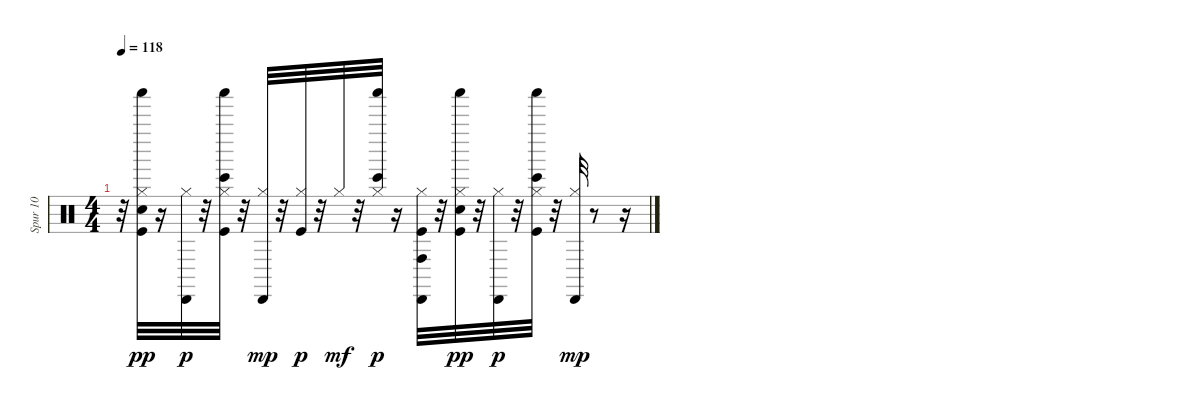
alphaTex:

\track ("Spur 10" "Spur 10") {instrument percussion}
\staff {score}
\articulation defaults
\ts (4 4)
\tempo 118
\clef neutral
\ks c
r.32{dy mp} ("Kick (hit)" "Snare (hit) 2" "Hi-Hat (closed)" "Shaker (hit)").32{dy pp} r.16 ("Hi-Hat (closed)" "Cabasa (hit)").32{dy p volume 3} r.32 ("Kick (hit)" "Hi-Hat (closed)" "Bongo High (hit)" "Shaker (hit)").32 r.32 ("Hi-Hat (closed)" "Cabasa (hit)").32{dy mp} r.32 ("Kick (hit)" "Hi-Hat (closed)").32{dy p volume 2} r.32 "Hi-Hat (closed)".32{dy mf} r.32 ("Hi-Hat (closed)" "Bongo High (hit)" "Shaker (hit)").32{dy p volume 2} r.16 ("Kick (hit)" "Hi-Hat (closed)" "Conga high (hit)" "Cabasa (hit)").32 r.32 ("Kick (hit)" "Snare (hit) 2" "Hi-Hat (closed)" "Shaker (hit)").32{dy pp} r.32 ("Hi-Hat (closed)" "Cabasa (hit)").32{dy p volume 1} r.32 ("Kick (hit)" "Hi-Hat (closed)" "Bongo High (hit)" "Shaker (hit)").32 r.32 ("Hi-Hat (closed)" "Cabasa (hit)").32{dy mp volume 0} r.8 r.16
